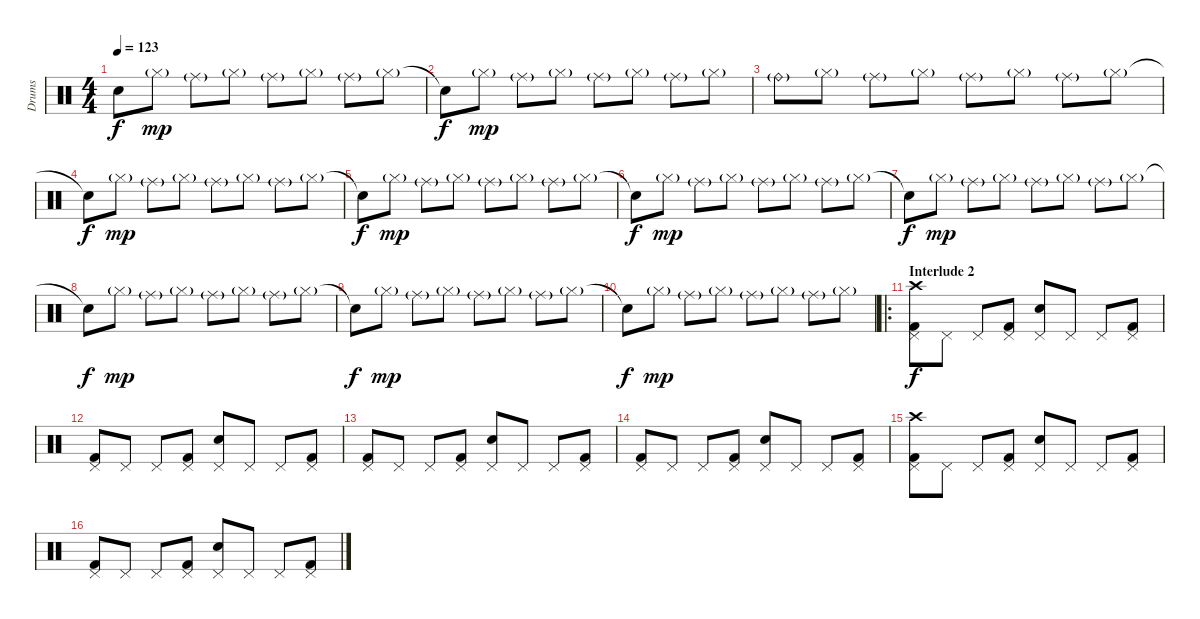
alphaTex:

\track ("Drums" "Drums") {instrument percussion}
\staff {score}
\articulation defaults
\ts (4 4)
\tempo 123
\clef neutral
\ks c "Snare (hit)"{t}.8{dy f} "Hi-Hat (closed)"{g}.8{dy mp} "Ride (middle)"{g}.8 "Hi-Hat (closed)"{g}.8 "Ride (middle)"{g}.8 "Hi-Hat (closed)"{g}.8 "Ride (middle)"{g}.8 "Hi-Hat (closed)"{g}.8
|
"Snare (hit)"{t}.8{dy f} "Hi-Hat (closed)"{g}.8{dy mp} "Ride (middle)"{g}.8 "Hi-Hat (closed)"{g}.8 "Ride (middle)"{g}.8 "Hi-Hat (closed)"{g}.8 "Ride (middle)"{g}.8 "Hi-Hat (closed)"{g}.8 |
"Ride (bell)"{g}.8 "Hi-Hat (closed)"{g}.8 "Ride (middle)"{g}.8 "Hi-Hat (closed)"{g}.8 "Ride (middle)"{g}.8 "Hi-Hat (closed)"{g}.8 "Ride (middle)"{g}.8 "Hi-Hat (closed)"{g}.8 |
"Snare (hit)"{t}.8{dy f} "Hi-Hat (closed)"{g}.8{dy mp} "Ride (middle)"{g}.8 "Hi-Hat (closed)"{g}.8 "Ride (middle)"{g}.8 "Hi-Hat (closed)"{g}.8 "Ride (middle)"{g}.8 "Hi-Hat (closed)"{g}.8 |
"Snare (hit)"{t}.8{dy f} "Hi-Hat (closed)"{g}.8{dy mp} "Ride (middle)"{g}.8 "Hi-Hat (closed)"{g}.8 "Ride (middle)"{g}.8 "Hi-Hat (closed)"{g}.8 "Ride (middle)"{g}.8 "Hi-Hat (closed)"{g}.8 |
"Snare (hit)"{t}.8{dy f} "Hi-Hat (closed)"{g}.8{dy mp} "Ride (middle)"{g}.8 "Hi-Hat (closed)"{g}.8 "Ride (middle)"{g}.8 "Hi-Hat (closed)"{g}.8 "Ride (middle)"{g}.8 "Hi-Hat (closed)"{g}.8 |
"Snare (hit)"{t}.8{dy f} "Hi-Hat (closed)"{g}.8{dy mp} "Ride (middle)"{g}.8 "Hi-Hat (closed)"{g}.8 "Ride (middle)"{g}.8 "Hi-Hat (closed)"{g}.8 "Ride (middle)"{g}.8 "Hi-Hat (closed)"{g}.8 |
"Snare (hit)"{t}.8{dy f} "Hi-Hat (closed)"{g}.8{dy mp} "Ride (middle)"{g}.8 "Hi-Hat (closed)"{g}.8 "Ride (middle)"{g}.8 "Hi-Hat (closed)"{g}.8 "Ride (middle)"{g}.8 "Hi-Hat (closed)"{g}.8 |
"Snare (hit)"{t}.8{dy f} "Hi-Hat (closed)"{g}.8{dy mp} "Ride (middle)"{g}.8 "Hi-Hat (closed)"{g}.8 "Ride (middle)"{g}.8 "Hi-Hat (closed)"{g}.8 "Ride (middle)"{g}.8 "Hi-Hat (closed)"{g}.8 |
"Snare (hit)"{t}.8{dy f} "Hi-Hat (closed)"{g}.8{dy mp} "Ride (middle)"{g}.8 "Hi-Hat (closed)"{g}.8 "Ride (middle)"{g}.8 "Hi-Hat (closed)"{g}.8 "Ride (middle)"{g}.8 "Hi-Hat (closed)"{g}.8 |
\ro
\section ("" "Interlude 2")
("Kick (hit) 2" "Pedal Hi-Hat (hit)" "Crash high (hit)").8{dy f} "Pedal Hi-Hat (hit)".8 "Pedal Hi-Hat (hit)".8 ("Kick (hit) 2" "Pedal Hi-Hat (hit)").8 ("Snare (hit) 2" "Pedal Hi-Hat (hit)").8 "Pedal Hi-Hat (hit)".8 "Pedal Hi-Hat (hit)".8 ("Kick (hit) 2" "Pedal Hi-Hat (hit)").8 |
("Kick (hit) 2" "Pedal Hi-Hat (hit)").8 "Pedal Hi-Hat (hit)".8 "Pedal Hi-Hat (hit)".8 ("Kick (hit) 2" "Pedal Hi-Hat (hit)").8 ("Snare (hit) 2" "Pedal Hi-Hat (hit)").8 "Pedal Hi-Hat (hit)".8 "Pedal Hi-Hat (hit)".8 ("Kick (hit) 2" "Pedal Hi-Hat (hit)").8 |
("Kick (hit) 2" "Pedal Hi-Hat (hit)").8 "Pedal Hi-Hat (hit)".8 "Pedal Hi-Hat (hit)".8 ("Kick (hit) 2" "Pedal Hi-Hat (hit)").8 ("Snare (hit) 2" "Pedal Hi-Hat (hit)").8 "Pedal Hi-Hat (hit)".8 "Pedal Hi-Hat (hit)".8 ("Kick (hit) 2" "Pedal Hi-Hat (hit)").8 |
("Kick (hit) 2" "Pedal Hi-Hat (hit)").8 "Pedal Hi-Hat (hit)".8 "Pedal Hi-Hat (hit)".8 ("Kick (hit) 2" "Pedal Hi-Hat (hit)").8 ("Snare (hit) 2" "Pedal Hi-Hat (hit)").8 "Pedal Hi-Hat (hit)".8 "Pedal Hi-Hat (hit)".8 ("Kick (hit) 2" "Pedal Hi-Hat (hit)").8 |
("Kick (hit) 2" "Pedal Hi-Hat (hit)" "Crash high (hit)").8 "Pedal Hi-Hat (hit)".8 "Pedal Hi-Hat (hit)".8 ("Kick (hit) 2" "Pedal Hi-Hat (hit)").8 ("Snare (hit) 2" "Pedal Hi-Hat (hit)").8 "Pedal Hi-Hat (hit)".8 "Pedal Hi-Hat (hit)".8 ("Kick (hit) 2" "Pedal Hi-Hat (hit)").8 |
("Kick (hit) 2" "Pedal Hi-Hat (hit)").8 "Pedal Hi-Hat (hit)".8 "Pedal Hi-Hat (hit)".8 ("Kick (hit) 2" "Pedal Hi-Hat (hit)").8 ("Snare (hit) 2" "Pedal Hi-Hat (hit)").8 "Pedal Hi-Hat (hit)".8 "Pedal Hi-Hat (hit)".8 ("Kick (hit) 2" "Pedal Hi-Hat (hit)").8
